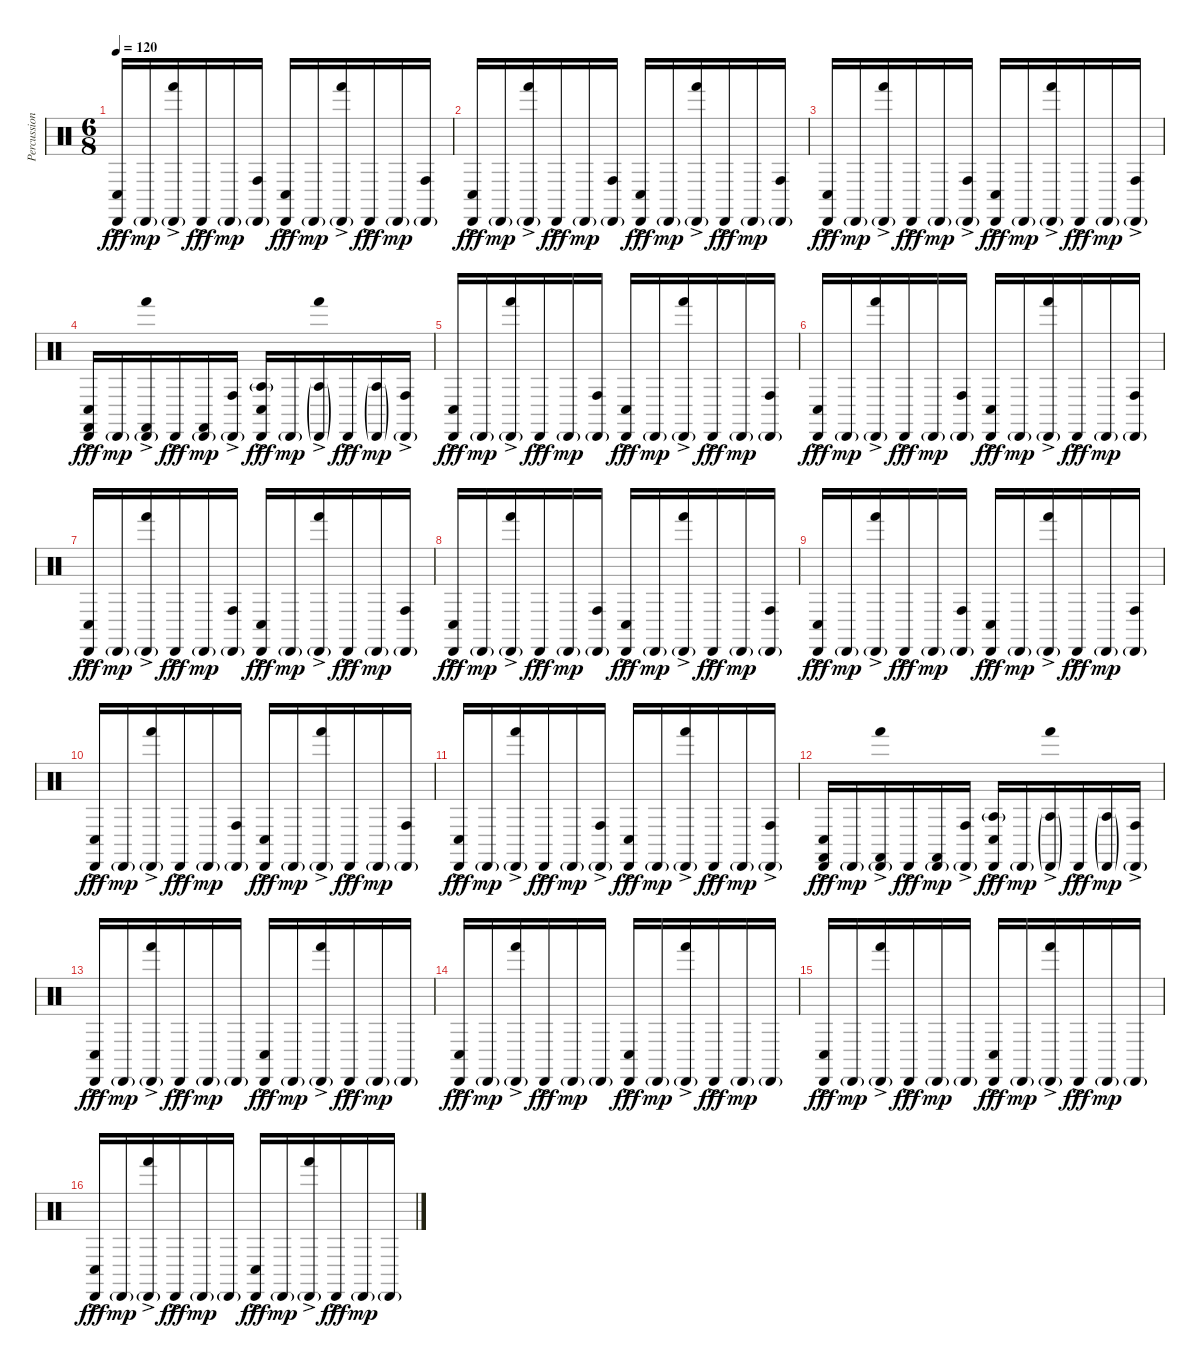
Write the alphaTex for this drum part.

\track ("Percussion" "Percussion") {instrument percussion}
\staff {score}
\articulation defaults
\ts (6 8)
\tempo 120
\clef neutral
\ks c
("Conga low (hit)"{ac} "Cabasa (hit)"{ac}).16{dy fff} "Cabasa (hit)"{g}.16{dy mp} ("Hand (hit)"{ac} "Cabasa (hit)"{g}).16 "Cabasa (hit)"{ac}.16{dy fff} "Cabasa (hit)"{g}.16{dy mp} ("Conga high (hit)" "Cabasa (hit)"{g}).16 ("Conga low (hit)"{ac} "Cabasa (hit)"{ac}).16{dy fff} "Cabasa (hit)"{g}.16{dy mp} ("Hand (hit)"{ac} "Cabasa (hit)"{g}).16 "Cabasa (hit)"{ac}.16{dy fff} "Cabasa (hit)"{g}.16{dy mp} ("Conga high (hit)" "Cabasa (hit)"{g}).16 |
("Conga low (hit)"{ac} "Cabasa (hit)"{ac}).16{dy fff} "Cabasa (hit)"{g}.16{dy mp} ("Hand (hit)"{ac} "Cabasa (hit)"{g}).16 "Cabasa (hit)"{ac}.16{dy fff} "Cabasa (hit)"{g}.16{dy mp} ("Conga high (hit)" "Cabasa (hit)"{g}).16 ("Conga low (hit)"{ac} "Cabasa (hit)"{ac}).16{dy fff} "Cabasa (hit)"{g}.16{dy mp} ("Hand (hit)"{ac} "Cabasa (hit)"{g}).16 "Cabasa (hit)"{ac}.16{dy fff} "Cabasa (hit)"{g}.16{dy mp} ("Conga high (hit)" "Cabasa (hit)"{g}).16 |
("Conga low (hit)"{ac} "Cabasa (hit)"{ac}).16{dy fff} "Cabasa (hit)"{g}.16{dy mp} ("Hand (hit)"{ac} "Cabasa (hit)"{g}).16 "Cabasa (hit)"{ac}.16{dy fff} "Cabasa (hit)"{g}.16{dy mp} ("Conga high (hit)"{ac} "Cabasa (hit)"{g}).16 ("Conga low (hit)"{ac} "Cabasa (hit)"{ac}).16{dy fff} "Cabasa (hit)"{g}.16{dy mp} ("Hand (hit)"{ac} "Cabasa (hit)"{g}).16 "Cabasa (hit)"{ac}.16{dy fff} "Cabasa (hit)"{g}.16{dy mp} ("Conga high (hit)"{ac} "Cabasa (hit)"{g}).16 |
("Castanets (hit)" "Conga low (hit)"{ac} "Cabasa (hit)"{ac}).16{dy fff} "Cabasa (hit)"{g}.16{dy mp} ("Castanets (hit)" "Hand (hit)"{ac} "Cabasa (hit)"{g}).16 "Cabasa (hit)"{ac}.16{dy fff} ("Castanets (hit)" "Cabasa (hit)"{g}).16{dy mp} ("Conga high (hit)"{ac} "Cabasa (hit)"{g}).16 ("Agogo tow (hit)"{g} "Conga low (hit)"{ac} "Cabasa (hit)"{ac}).16{dy fff} "Cabasa (hit)"{g}.16{dy mp} ("Agogo tow (hit)"{g} "Hand (hit)"{ac} "Cabasa (hit)"{g}).16 "Cabasa (hit)"{ac}.16{dy fff} ("Agogo tow (hit)"{g} "Cabasa (hit)"{g}).16{dy mp} ("Conga high (hit)"{ac} "Cabasa (hit)"{g}).16 |
("Conga low (hit)"{ac} "Cabasa (hit)"{ac}).16{dy fff} "Cabasa (hit)"{g}.16{dy mp} ("Hand (hit)"{ac} "Cabasa (hit)"{g}).16 "Cabasa (hit)"{ac}.16{dy fff} "Cabasa (hit)"{g}.16{dy mp} ("Conga high (hit)" "Cabasa (hit)"{g}).16 ("Conga low (hit)"{ac} "Cabasa (hit)"{ac}).16{dy fff} "Cabasa (hit)"{g}.16{dy mp} ("Hand (hit)"{ac} "Cabasa (hit)"{g}).16 "Cabasa (hit)"{ac}.16{dy fff} "Cabasa (hit)"{g}.16{dy mp} ("Conga high (hit)" "Cabasa (hit)"{g}).16 |
("Conga low (hit)"{ac} "Cabasa (hit)"{ac}).16{dy fff} "Cabasa (hit)"{g}.16{dy mp} ("Hand (hit)"{ac} "Cabasa (hit)"{g}).16 "Cabasa (hit)"{ac}.16{dy fff} "Cabasa (hit)"{g}.16{dy mp} ("Conga high (hit)" "Cabasa (hit)"{g}).16 ("Conga low (hit)"{ac} "Cabasa (hit)"{ac}).16{dy fff} "Cabasa (hit)"{g}.16{dy mp} ("Hand (hit)"{ac} "Cabasa (hit)"{g}).16 "Cabasa (hit)"{ac}.16{dy fff} "Cabasa (hit)"{g}.16{dy mp} ("Conga high (hit)" "Cabasa (hit)"{g}).16 |
("Conga low (hit)"{ac} "Cabasa (hit)"{ac}).16{dy fff} "Cabasa (hit)"{g}.16{dy mp} ("Hand (hit)"{ac} "Cabasa (hit)"{g}).16 "Cabasa (hit)"{ac}.16{dy fff} "Cabasa (hit)"{g}.16{dy mp} ("Conga high (hit)" "Cabasa (hit)"{g}).16 ("Conga low (hit)"{ac} "Cabasa (hit)"{ac}).16{dy fff} "Cabasa (hit)"{g}.16{dy mp} ("Hand (hit)"{ac} "Cabasa (hit)"{g}).16 "Cabasa (hit)"{ac}.16{dy fff} "Cabasa (hit)"{g}.16{dy mp} ("Conga high (hit)" "Cabasa (hit)"{g}).16 |
("Conga low (hit)"{ac} "Cabasa (hit)"{ac}).16{dy fff} "Cabasa (hit)"{g}.16{dy mp} ("Hand (hit)"{ac} "Cabasa (hit)"{g}).16 "Cabasa (hit)"{ac}.16{dy fff} "Cabasa (hit)"{g}.16{dy mp} ("Conga high (hit)" "Cabasa (hit)"{g}).16 ("Conga low (hit)"{ac} "Cabasa (hit)"{ac}).16{dy fff} "Cabasa (hit)"{g}.16{dy mp} ("Hand (hit)"{ac} "Cabasa (hit)"{g}).16 "Cabasa (hit)"{ac}.16{dy fff} "Cabasa (hit)"{g}.16{dy mp} ("Conga high (hit)" "Cabasa (hit)"{g}).16 |
("Conga low (hit)"{ac} "Cabasa (hit)"{ac}).16{dy fff} "Cabasa (hit)"{g}.16{dy mp} ("Hand (hit)"{ac} "Cabasa (hit)"{g}).16 "Cabasa (hit)"{ac}.16{dy fff} "Cabasa (hit)"{g}.16{dy mp} ("Conga high (hit)" "Cabasa (hit)"{g}).16 ("Conga low (hit)"{ac} "Cabasa (hit)"{ac}).16{dy fff} "Cabasa (hit)"{g}.16{dy mp} ("Hand (hit)"{ac} "Cabasa (hit)"{g}).16 "Cabasa (hit)"{ac}.16{dy fff} "Cabasa (hit)"{g}.16{dy mp} ("Conga high (hit)" "Cabasa (hit)"{g}).16 |
("Conga low (hit)"{ac} "Cabasa (hit)"{ac}).16{dy fff} "Cabasa (hit)"{g}.16{dy mp} ("Hand (hit)"{ac} "Cabasa (hit)"{g}).16 "Cabasa (hit)"{ac}.16{dy fff} "Cabasa (hit)"{g}.16{dy mp} ("Conga high (hit)" "Cabasa (hit)"{g}).16 ("Conga low (hit)"{ac} "Cabasa (hit)"{ac}).16{dy fff} "Cabasa (hit)"{g}.16{dy mp} ("Hand (hit)"{ac} "Cabasa (hit)"{g}).16 "Cabasa (hit)"{ac}.16{dy fff} "Cabasa (hit)"{g}.16{dy mp} ("Conga high (hit)" "Cabasa (hit)"{g}).16 |
("Conga low (hit)"{ac} "Cabasa (hit)"{ac}).16{dy fff} "Cabasa (hit)"{g}.16{dy mp} ("Hand (hit)"{ac} "Cabasa (hit)"{g}).16 "Cabasa (hit)"{ac}.16{dy fff} "Cabasa (hit)"{g}.16{dy mp} ("Conga high (hit)"{ac} "Cabasa (hit)"{g}).16 ("Conga low (hit)"{ac} "Cabasa (hit)"{ac}).16{dy fff} "Cabasa (hit)"{g}.16{dy mp} ("Hand (hit)"{ac} "Cabasa (hit)"{g}).16 "Cabasa (hit)"{ac}.16{dy fff} "Cabasa (hit)"{g}.16{dy mp} ("Conga high (hit)"{ac} "Cabasa (hit)"{g}).16 |
("Castanets (hit)" "Conga low (hit)"{ac} "Cabasa (hit)"{ac}).16{dy fff} "Cabasa (hit)"{g}.16{dy mp} ("Castanets (hit)" "Hand (hit)"{ac} "Cabasa (hit)"{g}).16 "Cabasa (hit)"{ac}.16{dy fff} ("Castanets (hit)" "Cabasa (hit)"{g}).16{dy mp} ("Conga high (hit)"{ac} "Cabasa (hit)"{g}).16 ("Agogo tow (hit)"{g} "Conga low (hit)"{ac} "Cabasa (hit)"{ac}).16{dy fff} "Cabasa (hit)"{g}.16{dy mp} ("Agogo tow (hit)"{g} "Hand (hit)"{ac} "Cabasa (hit)"{g}).16 "Cabasa (hit)"{ac}.16{dy fff} ("Agogo tow (hit)"{g} "Cabasa (hit)"{g}).16{dy mp} ("Conga high (hit)"{ac} "Cabasa (hit)"{g}).16 |
("Conga low (hit)"{ac} "Cabasa (hit)"{ac}).16{dy fff} "Cabasa (hit)"{g}.16{dy mp} ("Hand (hit)"{ac} "Cabasa (hit)"{g}).16 "Cabasa (hit)"{ac}.16{dy fff} "Cabasa (hit)"{g}.16{dy mp} "Cabasa (hit)"{g}.16 ("Conga low (hit)"{ac} "Cabasa (hit)"{ac}).16{dy fff} "Cabasa (hit)"{g}.16{dy mp} ("Hand (hit)"{ac} "Cabasa (hit)"{g}).16 "Cabasa (hit)"{ac}.16{dy fff} "Cabasa (hit)"{g}.16{dy mp} "Cabasa (hit)"{g}.16 |
("Conga low (hit)"{ac} "Cabasa (hit)"{ac}).16{dy fff} "Cabasa (hit)"{g}.16{dy mp} ("Hand (hit)"{ac} "Cabasa (hit)"{g}).16 "Cabasa (hit)"{ac}.16{dy fff} "Cabasa (hit)"{g}.16{dy mp} "Cabasa (hit)"{g}.16 ("Conga low (hit)"{ac} "Cabasa (hit)"{ac}).16{dy fff} "Cabasa (hit)"{g}.16{dy mp} ("Hand (hit)"{ac} "Cabasa (hit)"{g}).16 "Cabasa (hit)"{ac}.16{dy fff} "Cabasa (hit)"{g}.16{dy mp} "Cabasa (hit)"{g}.16 |
("Conga low (hit)"{ac} "Cabasa (hit)"{ac}).16{dy fff} "Cabasa (hit)"{g}.16{dy mp} ("Hand (hit)"{ac} "Cabasa (hit)"{g}).16 "Cabasa (hit)"{ac}.16{dy fff} "Cabasa (hit)"{g}.16{dy mp} "Cabasa (hit)"{g}.16 ("Conga low (hit)"{ac} "Cabasa (hit)"{ac}).16{dy fff} "Cabasa (hit)"{g}.16{dy mp} ("Hand (hit)"{ac} "Cabasa (hit)"{g}).16 "Cabasa (hit)"{ac}.16{dy fff} "Cabasa (hit)"{g}.16{dy mp} "Cabasa (hit)"{g}.16 |
("Conga low (hit)"{ac} "Cabasa (hit)"{ac}).16{dy fff} "Cabasa (hit)"{g}.16{dy mp} ("Hand (hit)"{ac} "Cabasa (hit)"{g}).16 "Cabasa (hit)"{ac}.16{dy fff} "Cabasa (hit)"{g}.16{dy mp} "Cabasa (hit)"{g}.16 ("Conga low (hit)"{ac} "Cabasa (hit)"{ac}).16{dy fff} "Cabasa (hit)"{g}.16{dy mp} ("Hand (hit)"{ac} "Cabasa (hit)"{g}).16 "Cabasa (hit)"{ac}.16{dy fff} "Cabasa (hit)"{g}.16{dy mp} "Cabasa (hit)"{g}.16
